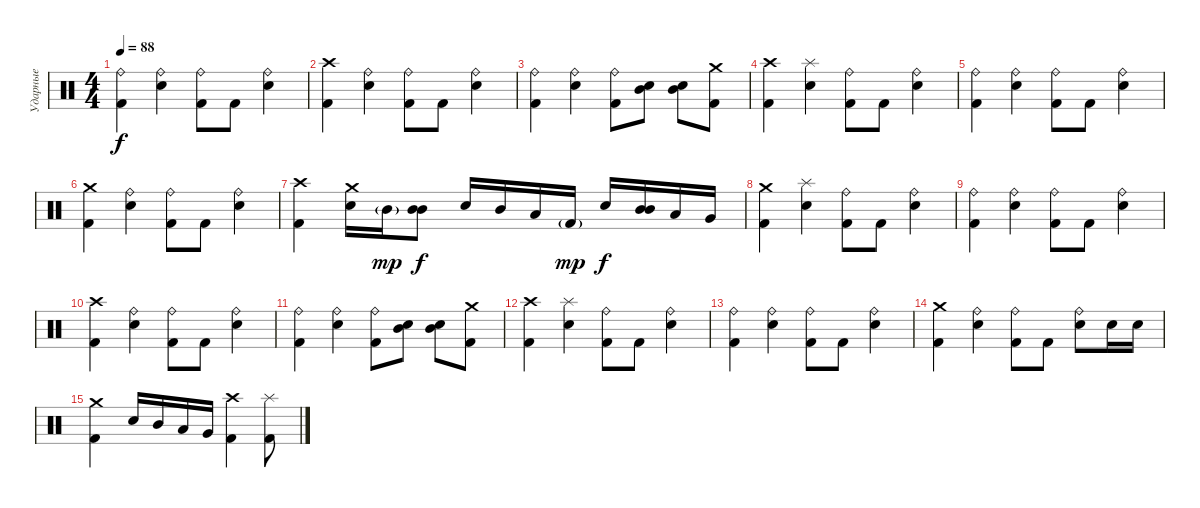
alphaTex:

\track ("Ударные" "Ударные") {instrument percussion}
\staff {score}
\articulation defaults
\ts (4 4)
\tempo 88
\clef neutral
\ks c
("Ride (bell)" "Kick (hit) 2").4{dy f} ("Ride (bell)" "Electric Snare (hit)").4 ("Ride (bell)" "Kick (hit) 2").8 "Kick (hit) 2".8 ("Ride (bell)" "Electric Snare (hit)").4 |
("Crash high (hit)" "Kick (hit) 2").4 ("Ride (bell)" "Electric Snare (hit)").4 ("Ride (bell)" "Kick (hit) 2").8 "Kick (hit) 2".8 ("Ride (bell)" "Electric Snare (hit)").4 |
("Ride (bell)" "Kick (hit) 2").4 ("Ride (bell)" "Electric Snare (hit)").4 ("Ride (bell)" "Kick (hit) 2").8 ("Mid Tom (hit)" "Electric Snare (hit)").8 ("Mid Tom (hit)" "Electric Snare (hit)").8 ("Crash medium (hit)" "Kick (hit) 2").8 |
("Crash high (hit)" "Kick (hit) 2").4 ("Splash (hit)" "Electric Snare (hit)").4 ("Ride (bell)" "Kick (hit) 2").8 "Kick (hit) 2".8 ("Ride (bell)" "Electric Snare (hit)").4 |
("Ride (bell)" "Kick (hit) 2").4 ("Ride (bell)" "Electric Snare (hit)").4 ("Ride (bell)" "Kick (hit) 2").8 "Kick (hit) 2".8 ("Ride (bell)" "Electric Snare (hit)").4 |
("Crash medium (hit)" "Kick (hit) 2").4 ("Ride (bell)" "Electric Snare (hit)").4 ("Ride (bell)" "Kick (hit) 2").8 "Kick (hit) 2".8 ("Ride (bell)" "Electric Snare (hit)").4 |
("Crash high (hit)" "Kick (hit) 2").4 ("Crash medium (hit)" "Electric Snare (hit)").16 "Mid Tom (hit)"{g}.16{dy mp} ("Mid Tom (hit)" "Mid Tom (hit)").8{bu 120 dy f} "Electric Snare (hit)".16 "Mid Tom (hit)".16 "Low Tom (hit)".16 "Kick (hit) 2"{g}.16{dy mp} "Electric Snare (hit)".16{dy f} ("Mid Tom (hit)" "Mid Tom (hit)").16{bd 120} "Low Tom (hit)".16 "Very Low Tom (hit)".16 |
("Crash medium (hit)" "Kick (hit) 2").4 ("Splash (hit)" "Electric Snare (hit)").4 ("Ride (bell)" "Kick (hit) 2").8 "Kick (hit) 2".8 ("Ride (bell)" "Electric Snare (hit)").4 |
("Ride (bell)" "Kick (hit) 2").4 ("Ride (bell)" "Electric Snare (hit)").4 ("Ride (bell)" "Kick (hit) 2").8 "Kick (hit) 2".8 ("Ride (bell)" "Electric Snare (hit)").4 |
("Crash high (hit)" "Kick (hit) 2").4 ("Ride (bell)" "Electric Snare (hit)").4 ("Ride (bell)" "Kick (hit) 2").8 "Kick (hit) 2".8 ("Ride (bell)" "Electric Snare (hit)").4 |
("Ride (bell)" "Kick (hit) 2").4 ("Ride (bell)" "Electric Snare (hit)").4 ("Ride (bell)" "Kick (hit) 2").8 ("Mid Tom (hit)" "Electric Snare (hit)").8 ("Mid Tom (hit)" "Electric Snare (hit)").8 ("Crash medium (hit)" "Kick (hit) 2").8 |
("Crash high (hit)" "Kick (hit) 2").4 ("Splash (hit)" "Electric Snare (hit)").4 ("Ride (bell)" "Kick (hit) 2").8 "Kick (hit) 2".8 ("Ride (bell)" "Electric Snare (hit)").4 |
("Ride (bell)" "Kick (hit) 2").4 ("Ride (bell)" "Electric Snare (hit)").4 ("Ride (bell)" "Kick (hit) 2").8 "Kick (hit) 2".8 ("Ride (bell)" "Electric Snare (hit)").4 |
("Crash medium (hit)" "Kick (hit) 2").4 ("Ride (bell)" "Electric Snare (hit)").4 ("Ride (bell)" "Kick (hit) 2").8 "Kick (hit) 2".8 ("Ride (bell)" "Electric Snare (hit)").8 "Electric Snare (hit)".16 "Electric Snare (hit)".16 |
("Crash medium (hit)" "Kick (hit) 2").4 "Electric Snare (hit)".16 "Mid Tom (hit)".16 "Low Tom (hit)".16 "Very Low Tom (hit)".16 ("Crash high (hit)" "Kick (hit) 2").4 ("Splash (hit)" "Kick (hit) 2").8
